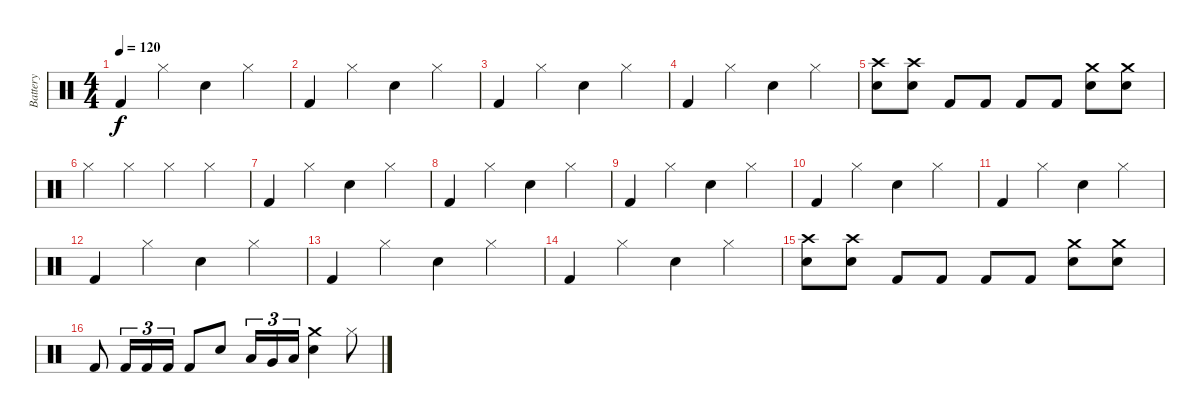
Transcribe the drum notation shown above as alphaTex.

\track ("Battery" "Battery") {instrument percussion}
\staff {score}
\articulation defaults
\ts (4 4)
\tempo 120
\clef neutral
\ks c "Kick (hit) 2".4{dy f} "Hi-Hat (closed)".4 "Snare (hit) 2".4 "Hi-Hat (closed)".4
|
"Kick (hit) 2".4 "Hi-Hat (closed)".4 "Snare (hit) 2".4 "Hi-Hat (closed)".4 |
"Kick (hit) 2".4 "Hi-Hat (closed)".4 "Snare (hit) 2".4 "Hi-Hat (closed)".4 |
"Kick (hit) 2".4 "Hi-Hat (closed)".4 "Snare (hit) 2".4 "Hi-Hat (closed)".4 |
("Crash high (hit)" "Snare (hit) 2").8 ("Crash high (hit)" "Snare (hit) 2").8 "Kick (hit) 2".8 "Kick (hit) 2".8 "Kick (hit) 2".8 "Kick (hit) 2".8 ("Crash medium (hit)" "Snare (hit) 2").8 ("Crash medium (hit)" "Snare (hit) 2").8 |
"Hi-Hat (closed)".4 "Hi-Hat (closed)".4 "Hi-Hat (closed)".4 "Hi-Hat (closed)".4 |
"Kick (hit) 2".4 "Hi-Hat (closed)".4 "Snare (hit) 2".4 "Hi-Hat (closed)".4 |
"Kick (hit) 2".4 "Hi-Hat (closed)".4 "Snare (hit) 2".4 "Hi-Hat (closed)".4 |
"Kick (hit) 2".4 "Hi-Hat (closed)".4 "Snare (hit) 2".4 "Hi-Hat (closed)".4 |
"Kick (hit) 2".4 "Hi-Hat (closed)".4 "Snare (hit) 2".4 "Hi-Hat (closed)".4 |
"Kick (hit) 2".4 "Hi-Hat (closed)".4 "Snare (hit) 2".4 "Hi-Hat (closed)".4 |
"Kick (hit) 2".4 "Hi-Hat (closed)".4 "Snare (hit) 2".4 "Hi-Hat (closed)".4 |
"Kick (hit) 2".4 "Hi-Hat (closed)".4 "Snare (hit) 2".4 "Hi-Hat (closed)".4 |
"Kick (hit) 2".4 "Hi-Hat (closed)".4 "Snare (hit) 2".4 "Hi-Hat (closed)".4 |
("Crash high (hit)" "Snare (hit) 2").8 ("Crash high (hit)" "Snare (hit) 2").8 "Kick (hit) 2".8 "Kick (hit) 2".8 "Kick (hit) 2".8 "Kick (hit) 2".8 ("Crash medium (hit)" "Snare (hit) 2").8 ("Crash medium (hit)" "Snare (hit) 2").8 |
"Kick (hit) 2".8 "Kick (hit) 2".16{tu (3 2)} "Kick (hit) 2".16{tu (3 2)} "Kick (hit) 2".16{tu (3 2)} "Kick (hit) 2".8 "Snare (hit) 2".8 "Low Tom (hit)".16{tu (3 2)} "Very Low Tom (hit)".16{tu (3 2)} "Low Floor Tom (hit)".16{tu (3 2)} ("Crash medium (hit)" "Snare (hit) 2").4 "Hi-Hat (closed)".8
